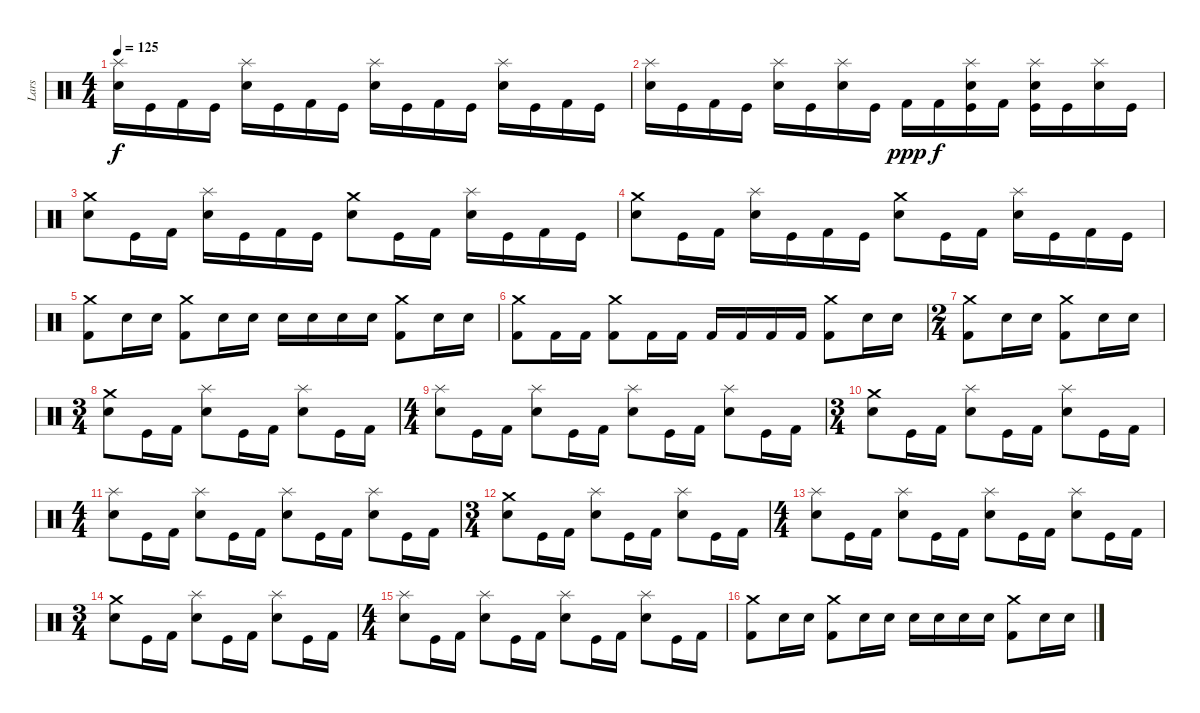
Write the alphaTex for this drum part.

\track ("Lars" "Lars") {instrument percussion}
\staff {score}
\articulation defaults
\ts (4 4)
\tempo 125
\clef neutral
\ks c
("Splash (hit)" "Snare (hit) 2").16{dy f} "Kick (hit)".16 "Kick (hit) 2".16 "Kick (hit)".16 ("Splash (hit)" "Snare (hit) 2").16 "Kick (hit)".16 "Kick (hit) 2".16 "Kick (hit)".16 ("Splash (hit)" "Snare (hit) 2").16 "Kick (hit)".16 "Kick (hit) 2".16 "Kick (hit)".16 ("Splash (hit)" "Snare (hit) 2").16 "Kick (hit)".16 "Kick (hit) 2".16 "Kick (hit)".16 |
("Splash (hit)" "Snare (hit) 2").16 "Kick (hit)".16 "Kick (hit) 2".16 "Kick (hit)".16 ("Splash (hit)" "Snare (hit) 2").16 "Kick (hit)".16 ("Splash (hit)" "Snare (hit) 2").16 "Kick (hit)".16 "Kick (hit) 2".16{dy ppp} "Kick (hit) 2".16{dy f} ("Splash (hit)" "Snare (hit) 2" "Kick (hit)").16 "Kick (hit) 2".16 ("Splash (hit)" "Snare (hit) 2" "Kick (hit)").16 "Kick (hit)".16 ("Splash (hit)" "Snare (hit) 2").16 "Kick (hit)".16 |
("Crash medium (hit)" "Snare (hit) 2").8 "Kick (hit)".16 "Kick (hit) 2".16 ("Splash (hit)" "Snare (hit) 2").16 "Kick (hit)".16 "Kick (hit) 2".16 "Kick (hit)".16 ("Crash medium (hit)" "Snare (hit) 2").8 "Kick (hit)".16 "Kick (hit) 2".16 ("Splash (hit)" "Snare (hit) 2").16 "Kick (hit)".16 "Kick (hit) 2".16 "Kick (hit)".16 |
("Crash medium (hit)" "Snare (hit) 2").8 "Kick (hit)".16 "Kick (hit) 2".16 ("Splash (hit)" "Snare (hit) 2").16 "Kick (hit)".16 "Kick (hit) 2".16 "Kick (hit)".16 ("Crash medium (hit)" "Snare (hit) 2").8 "Kick (hit)".16 "Kick (hit) 2".16 ("Splash (hit)" "Snare (hit) 2").16 "Kick (hit)".16 "Kick (hit) 2".16 "Kick (hit)".16 |
("Crash medium (hit)" "Kick (hit) 2").8 "Snare (hit) 2".16 "Snare (hit) 2".16 ("Crash medium (hit)" "Kick (hit) 2").8 "Snare (hit) 2".16 "Snare (hit) 2".16 "Snare (hit) 2".16 "Snare (hit) 2".16 "Snare (hit) 2".16 "Snare (hit) 2".16 ("Crash medium (hit)" "Kick (hit) 2").8 "Snare (hit) 2".16 "Snare (hit) 2".16 |
("Crash medium (hit)" "Kick (hit) 2").8 "Kick (hit) 2".16 "Kick (hit) 2".16 ("Crash medium (hit)" "Kick (hit) 2").8 "Kick (hit) 2".16 "Kick (hit) 2".16 "Kick (hit) 2".16 "Kick (hit) 2".16 "Kick (hit) 2".16 "Kick (hit) 2".16 ("Crash medium (hit)" "Kick (hit) 2").8 "Snare (hit) 2".16 "Snare (hit) 2".16 |
\ts (2 4)
("Crash medium (hit)" "Kick (hit) 2").8 "Snare (hit) 2".16 "Snare (hit) 2".16 ("Crash medium (hit)" "Kick (hit) 2").8 "Snare (hit) 2".16 "Snare (hit) 2".16 |
\ts (3 4)
("Crash medium (hit)" "Snare (hit) 2").8 "Kick (hit)".16 "Kick (hit) 2".16 ("Splash (hit)" "Snare (hit) 2").8 "Kick (hit)".16 "Kick (hit) 2".16 ("Splash (hit)" "Snare (hit) 2").8 "Kick (hit)".16 "Kick (hit) 2".16 |
\ts (4 4)
("Splash (hit)" "Snare (hit) 2").8 "Kick (hit)".16 "Kick (hit) 2".16 ("Splash (hit)" "Snare (hit) 2").8 "Kick (hit)".16 "Kick (hit) 2".16 ("Splash (hit)" "Snare (hit) 2").8 "Kick (hit)".16 "Kick (hit) 2".16 ("Splash (hit)" "Snare (hit) 2").8 "Kick (hit)".16 "Kick (hit) 2".16 |
\ts (3 4)
("Crash medium (hit)" "Snare (hit) 2").8 "Kick (hit)".16 "Kick (hit) 2".16 ("Splash (hit)" "Snare (hit) 2").8 "Kick (hit)".16 "Kick (hit) 2".16 ("Splash (hit)" "Snare (hit) 2").8 "Kick (hit)".16 "Kick (hit) 2".16 |
\ts (4 4)
("Splash (hit)" "Snare (hit) 2").8 "Kick (hit)".16 "Kick (hit) 2".16 ("Splash (hit)" "Snare (hit) 2").8 "Kick (hit)".16 "Kick (hit) 2".16 ("Splash (hit)" "Snare (hit) 2").8 "Kick (hit)".16 "Kick (hit) 2".16 ("Splash (hit)" "Snare (hit) 2").8 "Kick (hit)".16 "Kick (hit) 2".16 |
\ts (3 4)
("Crash medium (hit)" "Snare (hit) 2").8 "Kick (hit)".16 "Kick (hit) 2".16 ("Splash (hit)" "Snare (hit) 2").8 "Kick (hit)".16 "Kick (hit) 2".16 ("Splash (hit)" "Snare (hit) 2").8 "Kick (hit)".16 "Kick (hit) 2".16 |
\ts (4 4)
("Splash (hit)" "Snare (hit) 2").8 "Kick (hit)".16 "Kick (hit) 2".16 ("Splash (hit)" "Snare (hit) 2").8 "Kick (hit)".16 "Kick (hit) 2".16 ("Splash (hit)" "Snare (hit) 2").8 "Kick (hit)".16 "Kick (hit) 2".16 ("Splash (hit)" "Snare (hit) 2").8 "Kick (hit)".16 "Kick (hit) 2".16 |
\ts (3 4)
("Crash medium (hit)" "Snare (hit) 2").8 "Kick (hit)".16 "Kick (hit) 2".16 ("Splash (hit)" "Snare (hit) 2").8 "Kick (hit)".16 "Kick (hit) 2".16 ("Splash (hit)" "Snare (hit) 2").8 "Kick (hit)".16 "Kick (hit) 2".16 |
\ts (4 4)
("Splash (hit)" "Snare (hit) 2").8 "Kick (hit)".16 "Kick (hit) 2".16 ("Splash (hit)" "Snare (hit) 2").8 "Kick (hit)".16 "Kick (hit) 2".16 ("Splash (hit)" "Snare (hit) 2").8 "Kick (hit)".16 "Kick (hit) 2".16 ("Splash (hit)" "Snare (hit) 2").8 "Kick (hit)".16 "Kick (hit) 2".16 |
("Crash medium (hit)" "Kick (hit) 2").8 "Snare (hit) 2".16 "Snare (hit) 2".16 ("Crash medium (hit)" "Kick (hit) 2").8 "Snare (hit) 2".16 "Snare (hit) 2".16 "Snare (hit) 2".16 "Snare (hit) 2".16 "Snare (hit) 2".16 "Snare (hit) 2".16 ("Crash medium (hit)" "Kick (hit) 2").8 "Snare (hit) 2".16 "Snare (hit) 2".16
